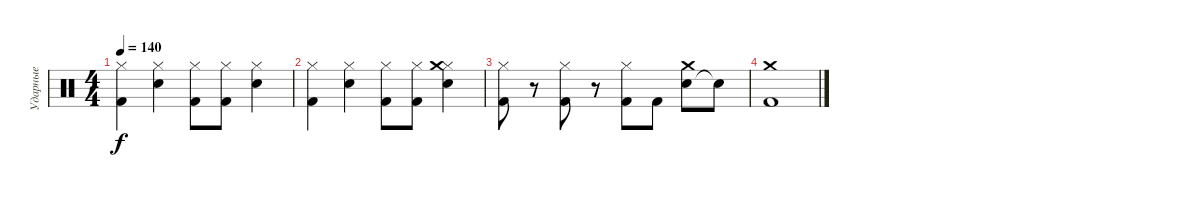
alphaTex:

\track ("Ударные" "Ударные") {instrument percussion}
\staff {score}
\articulation defaults
\ts (4 4)
\tempo 140
\clef neutral
\ks c
("Kick (hit) 2" "Hi-Hat (closed)").4{dy f} ("Snare (hit) 2" "Hi-Hat (closed)").4 ("Kick (hit) 2" "Hi-Hat (closed)").8 ("Kick (hit) 2" "Hi-Hat (closed)").8 ("Snare (hit) 2" "Hi-Hat (closed)").4 |
("Kick (hit) 2" "Hi-Hat (closed)").4 ("Snare (hit) 2" "Hi-Hat (closed)").4 ("Kick (hit) 2" "Hi-Hat (closed)").8 ("Kick (hit) 2" "Hi-Hat (closed)").8 ("Snare (hit) 2" "Hi-Hat (closed)" "Crash medium (hit)").4 |
("Kick (hit) 2" "Hi-Hat (closed)").8 r.8 ("Kick (hit) 2" "Hi-Hat (closed)").8 r.8 ("Kick (hit) 2" "Hi-Hat (closed)").8 "Kick (hit) 2".8 ("Snare (hit) 2" "Crash medium (hit)").8 "Snare (hit)"{t}.8 |
("Kick (hit) 2" "Crash medium (hit)").1
